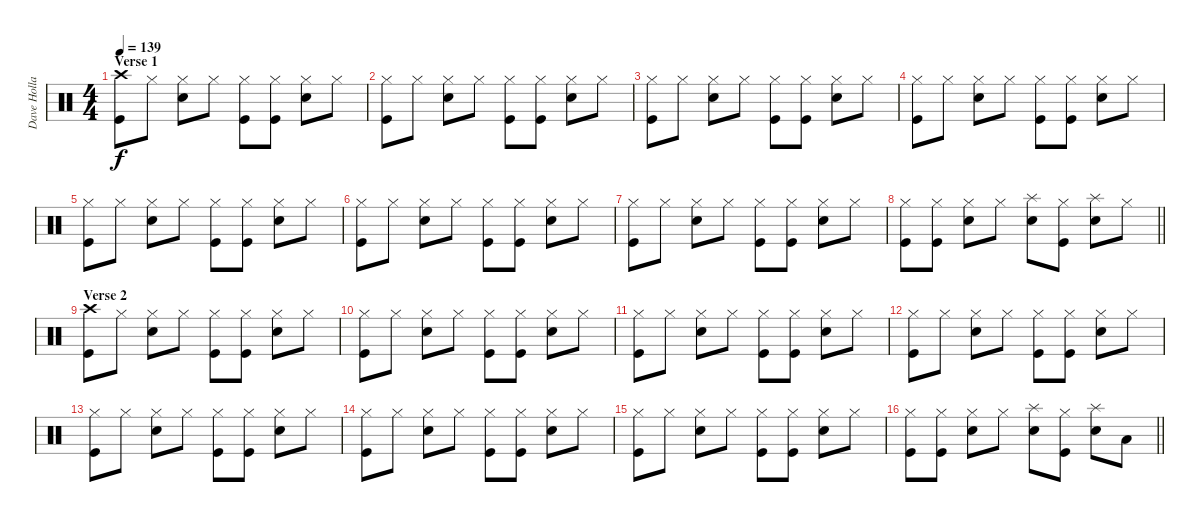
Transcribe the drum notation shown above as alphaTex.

\track ("Dave Holland" "Dave Holla") {instrument percussion}
\staff {score}
\articulation defaults
\ts (4 4)
\section ("" "Verse 1")
\tempo 139
\clef neutral
\ks c
("Crash high (hit)" "Kick (hit)").8{dy f} "Hi-Hat (closed)".8 ("Hi-Hat (closed)" "Electric Snare (hit)").8 "Hi-Hat (closed)".8 ("Hi-Hat (closed)" "Kick (hit)").8 ("Hi-Hat (closed)" "Kick (hit)").8 ("Hi-Hat (closed)" "Electric Snare (hit)").8 "Hi-Hat (closed)".8 |
("Hi-Hat (closed)" "Kick (hit)").8 "Hi-Hat (closed)".8 ("Hi-Hat (closed)" "Electric Snare (hit)").8 "Hi-Hat (closed)".8 ("Hi-Hat (closed)" "Kick (hit)").8 ("Hi-Hat (closed)" "Kick (hit)").8 ("Hi-Hat (closed)" "Electric Snare (hit)").8 "Hi-Hat (closed)".8 |
("Hi-Hat (closed)" "Kick (hit)").8 "Hi-Hat (closed)".8 ("Hi-Hat (closed)" "Electric Snare (hit)").8 "Hi-Hat (closed)".8 ("Hi-Hat (closed)" "Kick (hit)").8 ("Hi-Hat (closed)" "Kick (hit)").8 ("Hi-Hat (closed)" "Electric Snare (hit)").8 "Hi-Hat (closed)".8 |
("Hi-Hat (closed)" "Kick (hit)").8 "Hi-Hat (closed)".8 ("Hi-Hat (closed)" "Electric Snare (hit)").8 "Hi-Hat (closed)".8 ("Hi-Hat (closed)" "Kick (hit)").8 ("Hi-Hat (closed)" "Kick (hit)").8 ("Hi-Hat (closed)" "Electric Snare (hit)").8 "Hi-Hat (closed)".8 |
("Hi-Hat (closed)" "Kick (hit)").8 "Hi-Hat (closed)".8 ("Hi-Hat (closed)" "Electric Snare (hit)").8 "Hi-Hat (closed)".8 ("Hi-Hat (closed)" "Kick (hit)").8 ("Hi-Hat (closed)" "Kick (hit)").8 ("Hi-Hat (closed)" "Electric Snare (hit)").8 "Hi-Hat (closed)".8 |
("Hi-Hat (closed)" "Kick (hit)").8 "Hi-Hat (closed)".8 ("Hi-Hat (closed)" "Electric Snare (hit)").8 "Hi-Hat (closed)".8 ("Hi-Hat (closed)" "Kick (hit)").8 ("Hi-Hat (closed)" "Kick (hit)").8 ("Hi-Hat (closed)" "Electric Snare (hit)").8 "Hi-Hat (closed)".8 |
("Hi-Hat (closed)" "Kick (hit)").8 "Hi-Hat (closed)".8 ("Hi-Hat (closed)" "Electric Snare (hit)").8 "Hi-Hat (closed)".8 ("Hi-Hat (closed)" "Kick (hit)").8 ("Hi-Hat (closed)" "Kick (hit)").8 ("Hi-Hat (closed)" "Electric Snare (hit)").8 "Hi-Hat (closed)".8 |
\barLineRight lightlight
("Hi-Hat (closed)" "Kick (hit)").8 ("Hi-Hat (closed)" "Kick (hit)").8 ("Hi-Hat (closed)" "Electric Snare (hit)").8 "Hi-Hat (closed)".8 ("Splash (hit)" "Electric Snare (hit)").8 ("Hi-Hat (closed)" "Kick (hit)").8 ("Splash (hit)" "Electric Snare (hit)").8 "Hi-Hat (closed)".8 |
\section ("" "Verse 2")
("Crash high (hit)" "Kick (hit)").8 "Hi-Hat (closed)".8 ("Hi-Hat (closed)" "Electric Snare (hit)").8 "Hi-Hat (closed)".8 ("Hi-Hat (closed)" "Kick (hit)").8 ("Hi-Hat (closed)" "Kick (hit)").8 ("Hi-Hat (closed)" "Electric Snare (hit)").8 "Hi-Hat (closed)".8 |
("Hi-Hat (closed)" "Kick (hit)").8 "Hi-Hat (closed)".8 ("Hi-Hat (closed)" "Electric Snare (hit)").8 "Hi-Hat (closed)".8 ("Hi-Hat (closed)" "Kick (hit)").8 ("Hi-Hat (closed)" "Kick (hit)").8 ("Hi-Hat (closed)" "Electric Snare (hit)").8 "Hi-Hat (closed)".8 |
("Hi-Hat (closed)" "Kick (hit)").8 "Hi-Hat (closed)".8 ("Hi-Hat (closed)" "Electric Snare (hit)").8 "Hi-Hat (closed)".8 ("Hi-Hat (closed)" "Kick (hit)").8 ("Hi-Hat (closed)" "Kick (hit)").8 ("Hi-Hat (closed)" "Electric Snare (hit)").8 "Hi-Hat (closed)".8 |
("Hi-Hat (closed)" "Kick (hit)").8 "Hi-Hat (closed)".8 ("Hi-Hat (closed)" "Electric Snare (hit)").8 "Hi-Hat (closed)".8 ("Hi-Hat (closed)" "Kick (hit)").8 ("Hi-Hat (closed)" "Kick (hit)").8 ("Hi-Hat (closed)" "Electric Snare (hit)").8 "Hi-Hat (closed)".8 |
("Hi-Hat (closed)" "Kick (hit)").8 "Hi-Hat (closed)".8 ("Hi-Hat (closed)" "Electric Snare (hit)").8 "Hi-Hat (closed)".8 ("Hi-Hat (closed)" "Kick (hit)").8 ("Hi-Hat (closed)" "Kick (hit)").8 ("Hi-Hat (closed)" "Electric Snare (hit)").8 "Hi-Hat (closed)".8 |
("Hi-Hat (closed)" "Kick (hit)").8 "Hi-Hat (closed)".8 ("Hi-Hat (closed)" "Electric Snare (hit)").8 "Hi-Hat (closed)".8 ("Hi-Hat (closed)" "Kick (hit)").8 ("Hi-Hat (closed)" "Kick (hit)").8 ("Hi-Hat (closed)" "Electric Snare (hit)").8 "Hi-Hat (closed)".8 |
("Hi-Hat (closed)" "Kick (hit)").8 "Hi-Hat (closed)".8 ("Hi-Hat (closed)" "Electric Snare (hit)").8 "Hi-Hat (closed)".8 ("Hi-Hat (closed)" "Kick (hit)").8 ("Hi-Hat (closed)" "Kick (hit)").8 ("Hi-Hat (closed)" "Electric Snare (hit)").8 "Hi-Hat (closed)".8 |
\barLineRight lightlight
("Hi-Hat (closed)" "Kick (hit)").8 ("Hi-Hat (closed)" "Kick (hit)").8 ("Hi-Hat (closed)" "Electric Snare (hit)").8 "Hi-Hat (closed)".8 ("Splash (hit)" "Electric Snare (hit)").8 ("Hi-Hat (closed)" "Kick (hit)").8 ("Splash (hit)" "Electric Snare (hit)").8 "Low Tom (hit)".8
